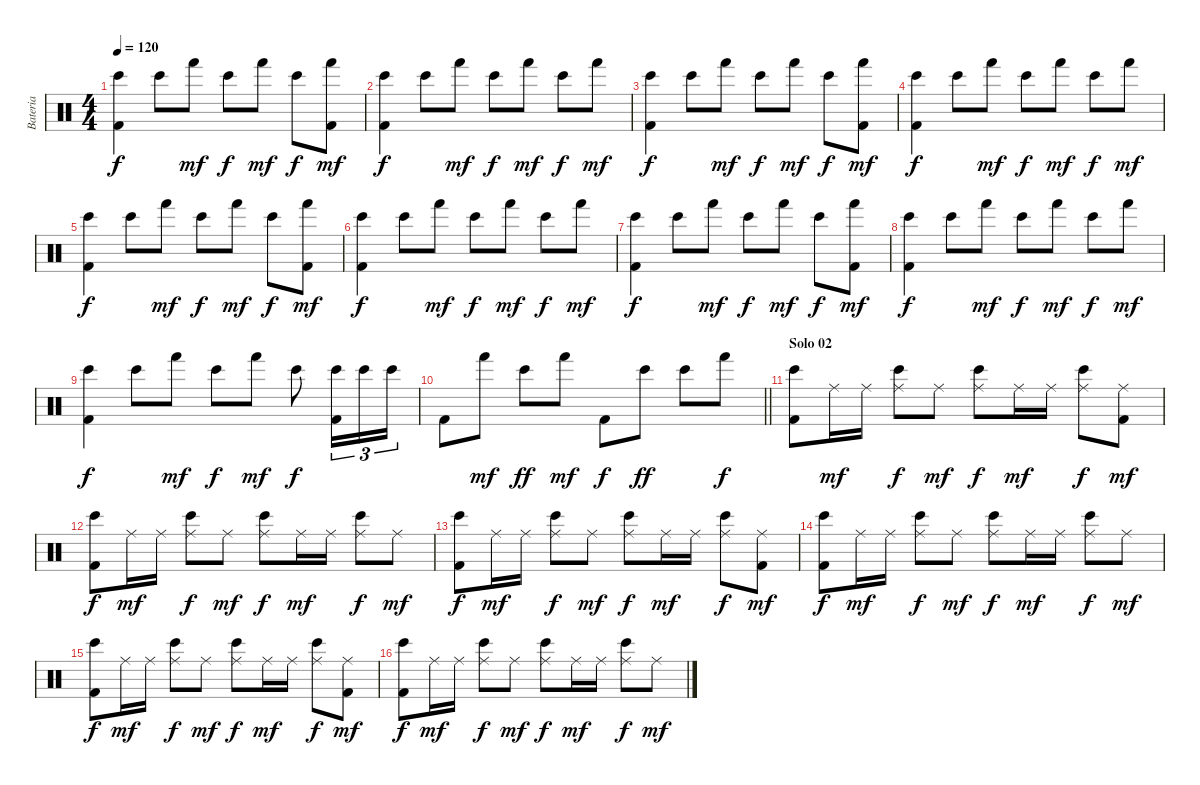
\track ("Bateria" "Bateria") {instrument percussion}
\staff {score}
\articulation defaults
\ts (4 4)
\tempo 120
\clef neutral
\ks c
("Kick (hit) 2" "Bongo High (hit)").4{dy f} "Bongo High (hit)".8 "Hand (hit)".8{dy mf} "Bongo High (hit)".8{dy f} "Hand (hit)".8{dy mf} "Bongo High (hit)".8{dy f} ("Kick (hit) 2" "Hand (hit)").8{dy mf} |
("Kick (hit) 2" "Bongo High (hit)").4{dy f} "Bongo High (hit)".8 "Hand (hit)".8{dy mf} "Bongo High (hit)".8{dy f} "Hand (hit)".8{dy mf} "Bongo High (hit)".8{dy f} "Hand (hit)".8{dy mf} |
("Kick (hit) 2" "Bongo High (hit)").4{dy f} "Bongo High (hit)".8 "Hand (hit)".8{dy mf} "Bongo High (hit)".8{dy f} "Hand (hit)".8{dy mf} "Bongo High (hit)".8{dy f} ("Kick (hit) 2" "Hand (hit)").8{dy mf} |
("Kick (hit) 2" "Bongo High (hit)").4{dy f} "Bongo High (hit)".8 "Hand (hit)".8{dy mf} "Bongo High (hit)".8{dy f} "Hand (hit)".8{dy mf} "Bongo High (hit)".8{dy f} "Hand (hit)".8{dy mf} |
("Kick (hit) 2" "Bongo High (hit)").4{dy f} "Bongo High (hit)".8 "Hand (hit)".8{dy mf} "Bongo High (hit)".8{dy f} "Hand (hit)".8{dy mf} "Bongo High (hit)".8{dy f} ("Kick (hit) 2" "Hand (hit)").8{dy mf} |
("Kick (hit) 2" "Bongo High (hit)").4{dy f} "Bongo High (hit)".8 "Hand (hit)".8{dy mf} "Bongo High (hit)".8{dy f} "Hand (hit)".8{dy mf} "Bongo High (hit)".8{dy f} "Hand (hit)".8{dy mf} |
("Kick (hit) 2" "Bongo High (hit)").4{dy f} "Bongo High (hit)".8 "Hand (hit)".8{dy mf} "Bongo High (hit)".8{dy f} "Hand (hit)".8{dy mf} "Bongo High (hit)".8{dy f} ("Kick (hit) 2" "Hand (hit)").8{dy mf} |
("Kick (hit) 2" "Bongo High (hit)").4{dy f} "Bongo High (hit)".8 "Hand (hit)".8{dy mf} "Bongo High (hit)".8{dy f} "Hand (hit)".8{dy mf} "Bongo High (hit)".8{dy f} "Hand (hit)".8{dy mf} |
("Kick (hit) 2" "Bongo High (hit)").4{dy f} "Bongo High (hit)".8 "Hand (hit)".8{dy mf} "Bongo High (hit)".8{dy f} "Hand (hit)".8{dy mf} "Bongo High (hit)".8{dy f} ("Kick (hit) 2" "Bongo High (hit)").16{tu (3 2)} "Bongo High (hit)".16{tu (3 2)} "Bongo High (hit)".16{tu (3 2)} |
\barLineRight lightlight "Kick (hit) 2".8 "Hand (hit)".8{dy mf} "Bongo High (hit)".8{dy ff} "Hand (hit)".8{dy mf} "Kick (hit) 2".8{dy f} "Bongo High (hit)".8{dy ff} "Bongo High (hit)".8 "Hand (hit)".8{dy f}
|
\section ("" "Solo 02")
("Kick (hit) 2" "Bongo High (hit)").8 "Ride (middle)".16{dy mf} "Ride (middle)".16 ("Bongo High (hit)" "Ride (middle)").8{dy f} "Ride (middle)".8{dy mf} ("Bongo High (hit)" "Ride (middle)").8{dy f} "Ride (middle)".16{dy mf} "Ride (middle)".16 ("Bongo High (hit)" "Ride (middle)").8{dy f} ("Kick (hit) 2" "Ride (middle)").8{dy mf} |
("Kick (hit) 2" "Bongo High (hit)").8{dy f} "Ride (middle)".16{dy mf} "Ride (middle)".16 ("Bongo High (hit)" "Ride (middle)").8{dy f} "Ride (middle)".8{dy mf} ("Bongo High (hit)" "Ride (middle)").8{dy f} "Ride (middle)".16{dy mf} "Ride (middle)".16 ("Bongo High (hit)" "Ride (middle)").8{dy f} "Ride (middle)".8{dy mf} |
("Kick (hit) 2" "Bongo High (hit)").8{dy f} "Ride (middle)".16{dy mf} "Ride (middle)".16 ("Bongo High (hit)" "Ride (middle)").8{dy f} "Ride (middle)".8{dy mf} ("Bongo High (hit)" "Ride (middle)").8{dy f} "Ride (middle)".16{dy mf} "Ride (middle)".16 ("Bongo High (hit)" "Ride (middle)").8{dy f} ("Kick (hit) 2" "Ride (middle)").8{dy mf} |
("Kick (hit) 2" "Bongo High (hit)").8{dy f} "Ride (middle)".16{dy mf} "Ride (middle)".16 ("Bongo High (hit)" "Ride (middle)").8{dy f} "Ride (middle)".8{dy mf} ("Bongo High (hit)" "Ride (middle)").8{dy f} "Ride (middle)".16{dy mf} "Ride (middle)".16 ("Bongo High (hit)" "Ride (middle)").8{dy f} "Ride (middle)".8{dy mf} |
("Kick (hit) 2" "Bongo High (hit)").8{dy f} "Ride (middle)".16{dy mf} "Ride (middle)".16 ("Bongo High (hit)" "Ride (middle)").8{dy f} "Ride (middle)".8{dy mf} ("Bongo High (hit)" "Ride (middle)").8{dy f} "Ride (middle)".16{dy mf} "Ride (middle)".16 ("Bongo High (hit)" "Ride (middle)").8{dy f} ("Kick (hit) 2" "Ride (middle)").8{dy mf} |
("Kick (hit) 2" "Bongo High (hit)").8{dy f} "Ride (middle)".16{dy mf} "Ride (middle)".16 ("Bongo High (hit)" "Ride (middle)").8{dy f} "Ride (middle)".8{dy mf} ("Bongo High (hit)" "Ride (middle)").8{dy f} "Ride (middle)".16{dy mf} "Ride (middle)".16 ("Bongo High (hit)" "Ride (middle)").8{dy f} "Ride (middle)".8{dy mf}
